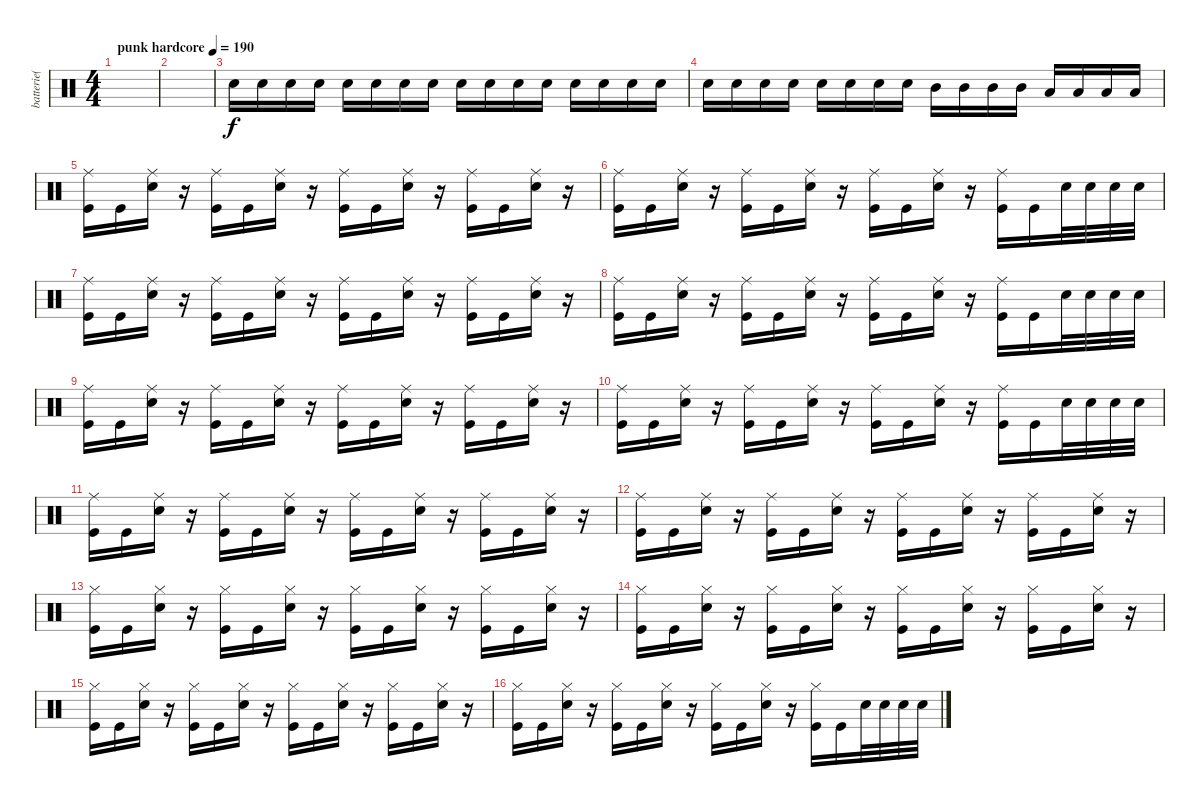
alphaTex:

\track ("batterie( Rob )" "batterie( ") {instrument percussion}
\staff {score}
\articulation defaults
\ts (4 4)
\tempo (190 "punk hardcore")
\clef neutral
\ks c
|
|
"Snare (hit) 2".16 "Snare (hit) 2".16 "Snare (hit) 2".16 "Snare (hit) 2".16 "Snare (hit) 2".16 "Snare (hit) 2".16 "Snare (hit) 2".16 "Snare (hit) 2".16 "Snare (hit) 2".16 "Snare (hit) 2".16 "Snare (hit) 2".16 "Snare (hit) 2".16 "Snare (hit) 2".16 "Snare (hit) 2".16 "Snare (hit) 2".16 "Snare (hit) 2".16 |
"Snare (hit) 2".16 "Snare (hit) 2".16 "Snare (hit) 2".16 "Snare (hit) 2".16 "Snare (hit) 2".16 "Snare (hit) 2".16 "Snare (hit) 2".16 "Snare (hit) 2".16 "Mid Tom (hit)".16 "Mid Tom (hit)".16 "Mid Tom (hit)".16 "Mid Tom (hit)".16 "Low Tom (hit)".16 "Low Tom (hit)".16 "Low Tom (hit)".16 "Low Tom (hit)".16 |
("Ride (middle)" "Kick (hit)").16 "Kick (hit)".16 ("Ride (middle)" "Snare (hit) 2").16 r.16 ("Ride (middle)" "Kick (hit)").16 "Kick (hit)".16 ("Ride (middle)" "Snare (hit) 2").16 r.16 ("Ride (middle)" "Kick (hit)").16 "Kick (hit)".16 ("Ride (middle)" "Snare (hit) 2").16 r.16 ("Ride (middle)" "Kick (hit)").16 "Kick (hit)".16 ("Ride (middle)" "Snare (hit) 2").16 r.16 |
("Ride (middle)" "Kick (hit)").16 "Kick (hit)".16 ("Ride (middle)" "Snare (hit) 2").16 r.16 ("Ride (middle)" "Kick (hit)").16 "Kick (hit)".16 ("Ride (middle)" "Snare (hit) 2").16 r.16 ("Ride (middle)" "Kick (hit)").16 "Kick (hit)".16 ("Ride (middle)" "Snare (hit) 2").16 r.16 ("Ride (middle)" "Kick (hit)").16 "Kick (hit)".16 "Snare (hit) 2".32 "Snare (hit) 2".32 "Snare (hit) 2".32 "Snare (hit) 2".32 |
("Ride (middle)" "Kick (hit)").16 "Kick (hit)".16 ("Ride (middle)" "Snare (hit) 2").16 r.16 ("Ride (middle)" "Kick (hit)").16 "Kick (hit)".16 ("Ride (middle)" "Snare (hit) 2").16 r.16 ("Ride (middle)" "Kick (hit)").16 "Kick (hit)".16 ("Ride (middle)" "Snare (hit) 2").16 r.16 ("Ride (middle)" "Kick (hit)").16 "Kick (hit)".16 ("Ride (middle)" "Snare (hit) 2").16 r.16 |
("Ride (middle)" "Kick (hit)").16 "Kick (hit)".16 ("Ride (middle)" "Snare (hit) 2").16 r.16 ("Ride (middle)" "Kick (hit)").16 "Kick (hit)".16 ("Ride (middle)" "Snare (hit) 2").16 r.16 ("Ride (middle)" "Kick (hit)").16 "Kick (hit)".16 ("Ride (middle)" "Snare (hit) 2").16 r.16 ("Ride (middle)" "Kick (hit)").16 "Kick (hit)".16 "Snare (hit) 2".32 "Snare (hit) 2".32 "Snare (hit) 2".32 "Snare (hit) 2".32 |
("Ride (middle)" "Kick (hit)").16 "Kick (hit)".16 ("Ride (middle)" "Snare (hit) 2").16 r.16 ("Ride (middle)" "Kick (hit)").16 "Kick (hit)".16 ("Ride (middle)" "Snare (hit) 2").16 r.16 ("Ride (middle)" "Kick (hit)").16 "Kick (hit)".16 ("Ride (middle)" "Snare (hit) 2").16 r.16 ("Ride (middle)" "Kick (hit)").16 "Kick (hit)".16 ("Ride (middle)" "Snare (hit) 2").16 r.16 |
("Ride (middle)" "Kick (hit)").16 "Kick (hit)".16 ("Ride (middle)" "Snare (hit) 2").16 r.16 ("Ride (middle)" "Kick (hit)").16 "Kick (hit)".16 ("Ride (middle)" "Snare (hit) 2").16 r.16 ("Ride (middle)" "Kick (hit)").16 "Kick (hit)".16 ("Ride (middle)" "Snare (hit) 2").16 r.16 ("Ride (middle)" "Kick (hit)").16 "Kick (hit)".16 "Snare (hit) 2".32 "Snare (hit) 2".32 "Snare (hit) 2".32 "Snare (hit) 2".32 |
("Ride (middle)" "Kick (hit)").16 "Kick (hit)".16 ("Ride (middle)" "Snare (hit) 2").16 r.16 ("Ride (middle)" "Kick (hit)").16 "Kick (hit)".16 ("Ride (middle)" "Snare (hit) 2").16 r.16 ("Ride (middle)" "Kick (hit)").16 "Kick (hit)".16 ("Ride (middle)" "Snare (hit) 2").16 r.16 ("Ride (middle)" "Kick (hit)").16 "Kick (hit)".16 ("Ride (middle)" "Snare (hit) 2").16 r.16 |
("Ride (middle)" "Kick (hit)").16 "Kick (hit)".16 ("Ride (middle)" "Snare (hit) 2").16 r.16 ("Ride (middle)" "Kick (hit)").16 "Kick (hit)".16 ("Ride (middle)" "Snare (hit) 2").16 r.16 ("Ride (middle)" "Kick (hit)").16 "Kick (hit)".16 ("Ride (middle)" "Snare (hit) 2").16 r.16 ("Ride (middle)" "Kick (hit)").16 "Kick (hit)".16 ("Ride (middle)" "Snare (hit) 2").16 r.16 |
("Hi-Hat (closed)" "Kick (hit)").16 "Kick (hit)".16 ("Hi-Hat (closed)" "Snare (hit) 2").16 r.16 ("Hi-Hat (closed)" "Kick (hit)").16 "Kick (hit)".16 ("Hi-Hat (closed)" "Snare (hit) 2").16 r.16 ("Hi-Hat (closed)" "Kick (hit)").16 "Kick (hit)".16 ("Hi-Hat (closed)" "Snare (hit) 2").16 r.16 ("Hi-Hat (closed)" "Kick (hit)").16 "Kick (hit)".16 ("Hi-Hat (closed)" "Snare (hit) 2").16 r.16 |
("Hi-Hat (closed)" "Kick (hit)").16 "Kick (hit)".16 ("Hi-Hat (closed)" "Snare (hit) 2").16 r.16 ("Hi-Hat (closed)" "Kick (hit)").16 "Kick (hit)".16 ("Hi-Hat (closed)" "Snare (hit) 2").16 r.16 ("Hi-Hat (closed)" "Kick (hit)").16 "Kick (hit)".16 ("Hi-Hat (closed)" "Snare (hit) 2").16 r.16 ("Hi-Hat (closed)" "Kick (hit)").16 "Kick (hit)".16 ("Hi-Hat (closed)" "Snare (hit) 2").16 r.16 |
("Hi-Hat (closed)" "Kick (hit)").16 "Kick (hit)".16 ("Hi-Hat (closed)" "Snare (hit) 2").16 r.16 ("Hi-Hat (closed)" "Kick (hit)").16 "Kick (hit)".16 ("Hi-Hat (closed)" "Snare (hit) 2").16 r.16 ("Hi-Hat (closed)" "Kick (hit)").16 "Kick (hit)".16 ("Hi-Hat (closed)" "Snare (hit) 2").16 r.16 ("Hi-Hat (closed)" "Kick (hit)").16 "Kick (hit)".16 ("Hi-Hat (closed)" "Snare (hit) 2").16 r.16 |
("Hi-Hat (closed)" "Kick (hit)").16 "Kick (hit)".16 ("Hi-Hat (closed)" "Snare (hit) 2").16 r.16 ("Hi-Hat (closed)" "Kick (hit)").16 "Kick (hit)".16 ("Hi-Hat (closed)" "Snare (hit) 2").16 r.16 ("Hi-Hat (closed)" "Kick (hit)").16 "Kick (hit)".16 ("Hi-Hat (closed)" "Snare (hit) 2").16 r.16 ("Hi-Hat (closed)" "Kick (hit)").16 "Kick (hit)".16 "Snare (hit) 2".32 "Snare (hit) 2".32 "Snare (hit) 2".32 "Snare (hit) 2".32
